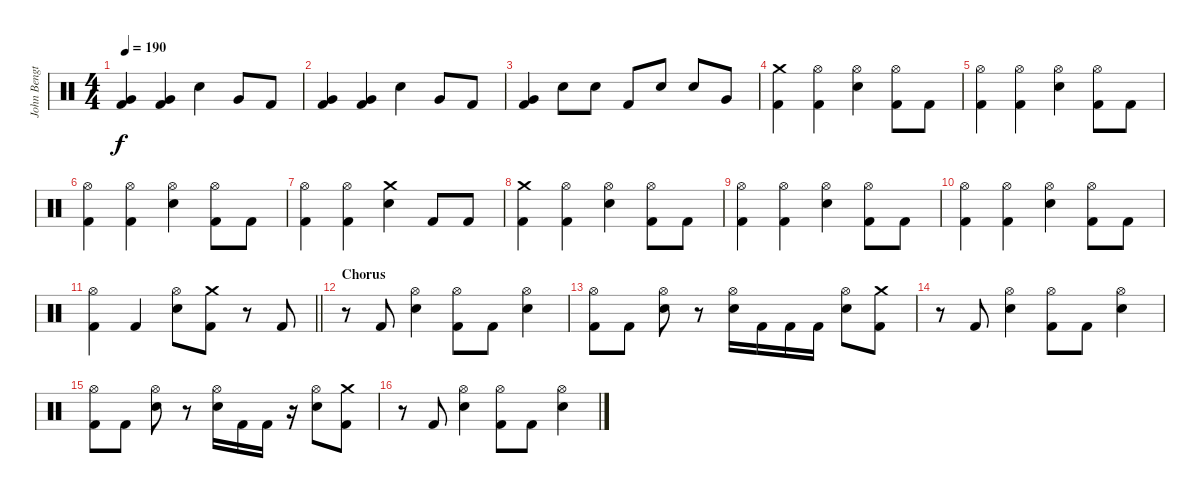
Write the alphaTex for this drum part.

\track ("John Bengtsson" "John Bengt") {instrument percussion}
\staff {score}
\articulation defaults
\ts (4 4)
\tempo 190
\clef neutral
\ks c
("Very Low Tom (hit)" "Kick (hit) 2").4{dy f} ("Very Low Tom (hit)" "Kick (hit) 2").4 "Electric Snare (hit)".4 "Very Low Tom (hit)".8 "Kick (hit) 2".8 |
("Very Low Tom (hit)" "Kick (hit) 2").4 ("Very Low Tom (hit)" "Kick (hit) 2").4 "Electric Snare (hit)".4 "Very Low Tom (hit)".8 "Kick (hit) 2".8 |
("Very Low Tom (hit)" "Kick (hit) 2").4 "Electric Snare (hit)".8 "Electric Snare (hit)".8 "Kick (hit) 2".8 "Electric Snare (hit)".8 "Electric Snare (hit)".8 "Very Low Tom (hit)".8 |
("Crash medium (hit)" "Kick (hit) 2").4 ("Hi-Hat (open)" "Kick (hit) 2").4 ("Hi-Hat (open)" "Electric Snare (hit)").4 ("Hi-Hat (open)" "Kick (hit) 2").8 "Kick (hit) 2".8 |
("Hi-Hat (open)" "Kick (hit) 2").4 ("Hi-Hat (open)" "Kick (hit) 2").4 ("Hi-Hat (open)" "Electric Snare (hit)").4 ("Hi-Hat (open)" "Kick (hit) 2").8 "Kick (hit) 2".8 |
("Hi-Hat (open)" "Kick (hit) 2").4 ("Hi-Hat (open)" "Kick (hit) 2").4 ("Hi-Hat (open)" "Electric Snare (hit)").4 ("Hi-Hat (open)" "Kick (hit) 2").8 "Kick (hit) 2".8 |
("Hi-Hat (open)" "Kick (hit) 2").4 ("Hi-Hat (open)" "Kick (hit) 2").4 ("Crash medium (hit)" "Electric Snare (hit)").4 "Kick (hit) 2".8 "Kick (hit) 2".8 |
("Crash medium (hit)" "Kick (hit) 2").4 ("Hi-Hat (open)" "Kick (hit) 2").4 ("Hi-Hat (open)" "Electric Snare (hit)").4 ("Hi-Hat (open)" "Kick (hit) 2").8 "Kick (hit) 2".8 |
("Hi-Hat (open)" "Kick (hit) 2").4 ("Hi-Hat (open)" "Kick (hit) 2").4 ("Hi-Hat (open)" "Electric Snare (hit)").4 ("Hi-Hat (open)" "Kick (hit) 2").8 "Kick (hit) 2".8 |
("Hi-Hat (open)" "Kick (hit) 2").4 ("Hi-Hat (open)" "Kick (hit) 2").4 ("Hi-Hat (open)" "Electric Snare (hit)").4 ("Hi-Hat (open)" "Kick (hit) 2").8 "Kick (hit) 2".8 |
\barLineRight lightlight
("Hi-Hat (open)" "Kick (hit) 2").4 "Kick (hit) 2".4 ("Hi-Hat (open)" "Electric Snare (hit)").8 ("Crash medium (hit)" "Kick (hit) 2").8 r.8 "Kick (hit) 2".8 |
\section ("" "Chorus")
r.8 "Kick (hit) 2".8 ("Hi-Hat (open)" "Electric Snare (hit)").4 ("Hi-Hat (open)" "Kick (hit) 2").8 "Kick (hit) 2".8 ("Hi-Hat (open)" "Electric Snare (hit)").4 |
("Hi-Hat (open)" "Kick (hit) 2").8 "Kick (hit) 2".8 ("Hi-Hat (open)" "Electric Snare (hit)").8 r.8 ("Hi-Hat (open)" "Electric Snare (hit)").16 "Kick (hit) 2".16 "Kick (hit) 2".16 "Kick (hit) 2".16 ("Hi-Hat (open)" "Electric Snare (hit)").8 ("Crash medium (hit)" "Kick (hit) 2").8 |
r.8 "Kick (hit) 2".8 ("Hi-Hat (open)" "Electric Snare (hit)").4 ("Hi-Hat (open)" "Kick (hit) 2").8 "Kick (hit) 2".8 ("Hi-Hat (open)" "Electric Snare (hit)").4 |
("Hi-Hat (open)" "Kick (hit) 2").8 "Kick (hit) 2".8 ("Hi-Hat (open)" "Electric Snare (hit)").8 r.8 ("Hi-Hat (open)" "Electric Snare (hit)").16 "Kick (hit) 2".16 "Kick (hit) 2".16 r.16 ("Hi-Hat (open)" "Electric Snare (hit)").8 ("Crash medium (hit)" "Kick (hit) 2").8 |
r.8 "Kick (hit) 2".8 ("Hi-Hat (open)" "Electric Snare (hit)").4 ("Hi-Hat (open)" "Kick (hit) 2").8 "Kick (hit) 2".8 ("Hi-Hat (open)" "Electric Snare (hit)").4
